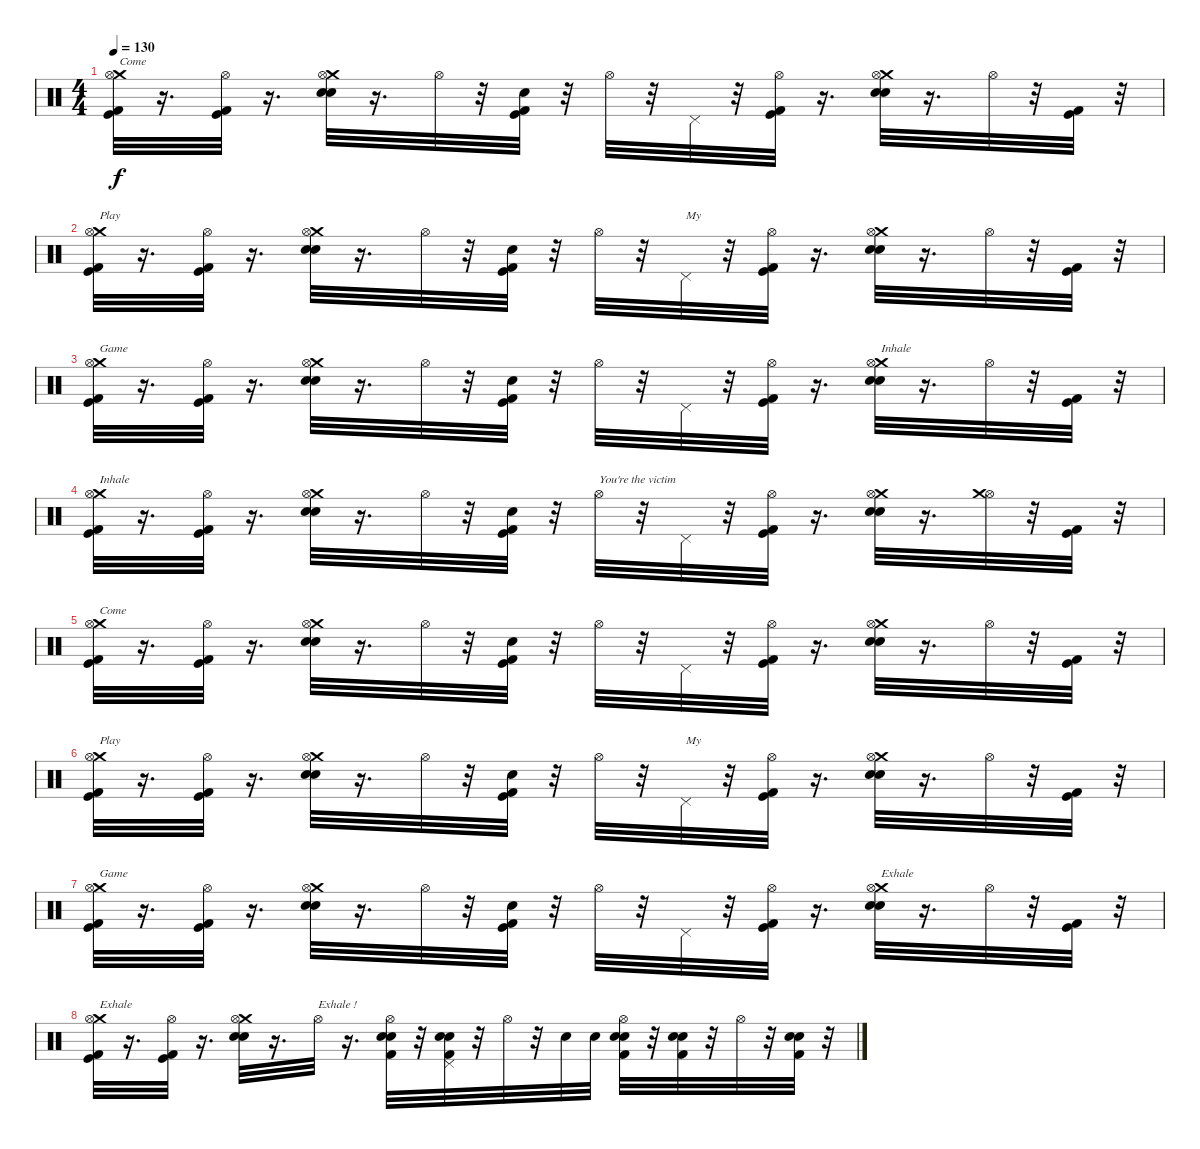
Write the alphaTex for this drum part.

\track "" {instrument percussion}
\staff {score}
\articulation defaults
\ts (4 4)
\tempo 130
\clef neutral
\ks c
("Kick (hit) 2" "Kick (hit)" "Crash medium (hit)" "Hi-Hat (open)").32{txt "Come" dy f} r.16{d} ("Kick (hit) 2" "Kick (hit)" "Hi-Hat (open)").32 r.16{d} ("Snare (hit) 2" "Electric Snare (hit)" "Crash medium (hit)" "Hi-Hat (open)").32 r.16{d} "Hi-Hat (open)".32 r.32 ("Kick (hit) 2" "Kick (hit)" "Electric Snare (hit)").32 r.32 "Hi-Hat (open)".32 r.32 "Pedal Hi-Hat (hit)".32 r.32 ("Kick (hit) 2" "Kick (hit)" "Hi-Hat (open)").32 r.16{d} ("Snare (hit) 2" "Electric Snare (hit)" "Crash medium (hit)" "Hi-Hat (open)").32 r.16{d} "Hi-Hat (open)".32 r.32 ("Kick (hit) 2" "Kick (hit)").32 r.32 |
("Kick (hit) 2" "Kick (hit)" "Crash medium (hit)" "Hi-Hat (open)").32{txt "Play"} r.16{d} ("Kick (hit) 2" "Kick (hit)" "Hi-Hat (open)").32 r.16{d} ("Snare (hit) 2" "Electric Snare (hit)" "Crash medium (hit)" "Hi-Hat (open)").32 r.16{d} "Hi-Hat (open)".32 r.32 ("Kick (hit) 2" "Kick (hit)" "Electric Snare (hit)").32 r.32 "Hi-Hat (open)".32 r.32 "Pedal Hi-Hat (hit)".32{txt "My"} r.32 ("Kick (hit) 2" "Kick (hit)" "Hi-Hat (open)").32 r.16{d} ("Snare (hit) 2" "Electric Snare (hit)" "Crash medium (hit)" "Hi-Hat (open)").32 r.16{d} "Hi-Hat (open)".32 r.32 ("Kick (hit) 2" "Kick (hit)").32 r.32 |
("Kick (hit) 2" "Kick (hit)" "Crash medium (hit)" "Hi-Hat (open)").32{txt "Game"} r.16{d} ("Kick (hit) 2" "Kick (hit)" "Hi-Hat (open)").32 r.16{d} ("Snare (hit) 2" "Electric Snare (hit)" "Crash medium (hit)" "Hi-Hat (open)").32 r.16{d} "Hi-Hat (open)".32 r.32 ("Kick (hit) 2" "Kick (hit)" "Electric Snare (hit)").32 r.32 "Hi-Hat (open)".32 r.32 "Pedal Hi-Hat (hit)".32 r.32 ("Kick (hit) 2" "Kick (hit)" "Hi-Hat (open)").32 r.16{d} ("Snare (hit) 2" "Electric Snare (hit)" "Crash medium (hit)" "Hi-Hat (open)").32{txt "Inhale"} r.16{d} "Hi-Hat (open)".32 r.32 ("Kick (hit) 2" "Kick (hit)").32 r.32 |
("Kick (hit) 2" "Kick (hit)" "Crash medium (hit)" "Hi-Hat (open)").32{txt "Inhale"} r.16{d} ("Kick (hit) 2" "Kick (hit)" "Hi-Hat (open)").32 r.16{d} ("Snare (hit) 2" "Electric Snare (hit)" "Crash medium (hit)" "Hi-Hat (open)").32 r.16{d} "Hi-Hat (open)".32 r.32 ("Kick (hit) 2" "Kick (hit)" "Electric Snare (hit)").32 r.32 "Hi-Hat (open)".32{txt "You're the victim"} r.32 "Pedal Hi-Hat (hit)".32 r.32 ("Kick (hit) 2" "Kick (hit)" "Hi-Hat (open)").32 r.16{d} ("Snare (hit) 2" "Electric Snare (hit)" "Crash medium (hit)" "Hi-Hat (open)").32 r.16{d} ("Hi-Hat (open)" "Crash medium (hit)").32 r.32 ("Kick (hit) 2" "Kick (hit)").32 r.32 |
("Kick (hit) 2" "Kick (hit)" "Crash medium (hit)" "Hi-Hat (open)").32{txt "Come"} r.16{d} ("Kick (hit) 2" "Kick (hit)" "Hi-Hat (open)").32 r.16{d} ("Snare (hit) 2" "Electric Snare (hit)" "Crash medium (hit)" "Hi-Hat (open)").32 r.16{d} "Hi-Hat (open)".32 r.32 ("Kick (hit) 2" "Kick (hit)" "Electric Snare (hit)").32 r.32 "Hi-Hat (open)".32 r.32 "Pedal Hi-Hat (hit)".32 r.32 ("Kick (hit) 2" "Kick (hit)" "Hi-Hat (open)").32 r.16{d} ("Snare (hit) 2" "Electric Snare (hit)" "Crash medium (hit)" "Hi-Hat (open)").32 r.16{d} "Hi-Hat (open)".32 r.32 ("Kick (hit) 2" "Kick (hit)").32 r.32 |
("Kick (hit) 2" "Kick (hit)" "Crash medium (hit)" "Hi-Hat (open)").32{txt "Play"} r.16{d} ("Kick (hit) 2" "Kick (hit)" "Hi-Hat (open)").32 r.16{d} ("Snare (hit) 2" "Electric Snare (hit)" "Crash medium (hit)" "Hi-Hat (open)").32 r.16{d} "Hi-Hat (open)".32 r.32 ("Kick (hit) 2" "Kick (hit)" "Electric Snare (hit)").32 r.32 "Hi-Hat (open)".32 r.32 "Pedal Hi-Hat (hit)".32{txt "My"} r.32 ("Kick (hit) 2" "Kick (hit)" "Hi-Hat (open)").32 r.16{d} ("Snare (hit) 2" "Electric Snare (hit)" "Crash medium (hit)" "Hi-Hat (open)").32 r.16{d} "Hi-Hat (open)".32 r.32 ("Kick (hit) 2" "Kick (hit)").32 r.32 |
("Kick (hit) 2" "Kick (hit)" "Crash medium (hit)" "Hi-Hat (open)").32{txt "Game"} r.16{d} ("Kick (hit) 2" "Kick (hit)" "Hi-Hat (open)").32 r.16{d} ("Snare (hit) 2" "Electric Snare (hit)" "Crash medium (hit)" "Hi-Hat (open)").32 r.16{d} "Hi-Hat (open)".32 r.32 ("Kick (hit) 2" "Kick (hit)" "Electric Snare (hit)").32 r.32 "Hi-Hat (open)".32 r.32 "Pedal Hi-Hat (hit)".32 r.32 ("Kick (hit) 2" "Kick (hit)" "Hi-Hat (open)").32 r.16{d} ("Snare (hit) 2" "Electric Snare (hit)" "Crash medium (hit)" "Hi-Hat (open)").32{txt "Exhale"} r.16{d} "Hi-Hat (open)".32 r.32 ("Kick (hit) 2" "Kick (hit)").32 r.32 |
("Kick (hit) 2" "Kick (hit)" "Crash medium (hit)" "Hi-Hat (open)").32{txt "Exhale"} r.16{d} ("Kick (hit) 2" "Kick (hit)" "Hi-Hat (open)").32 r.16{d} ("Snare (hit) 2" "Electric Snare (hit)" "Crash medium (hit)" "Hi-Hat (open)").32 r.16{d} "Hi-Hat (open)".32{txt "Exhale !"} r.16{d} ("Hi-Hat (open)" "Electric Snare (hit)" "Snare (hit) 2" "Kick (hit) 2").32 r.32 ("Electric Snare (hit)" "Snare (hit) 2" "Kick (hit) 2" "Pedal Hi-Hat (hit)").32 r.32 "Hi-Hat (open)".32 r.32 "Electric Snare (hit)".32 "Electric Snare (hit)".32 ("Hi-Hat (open)" "Snare (hit) 2" "Electric Snare (hit)" "Kick (hit) 2").32 r.32 ("Electric Snare (hit)" "Snare (hit) 2" "Kick (hit) 2").32 r.32 "Hi-Hat (open)".32 r.32 ("Electric Snare (hit)" "Snare (hit) 2" "Kick (hit) 2").32 r.32
